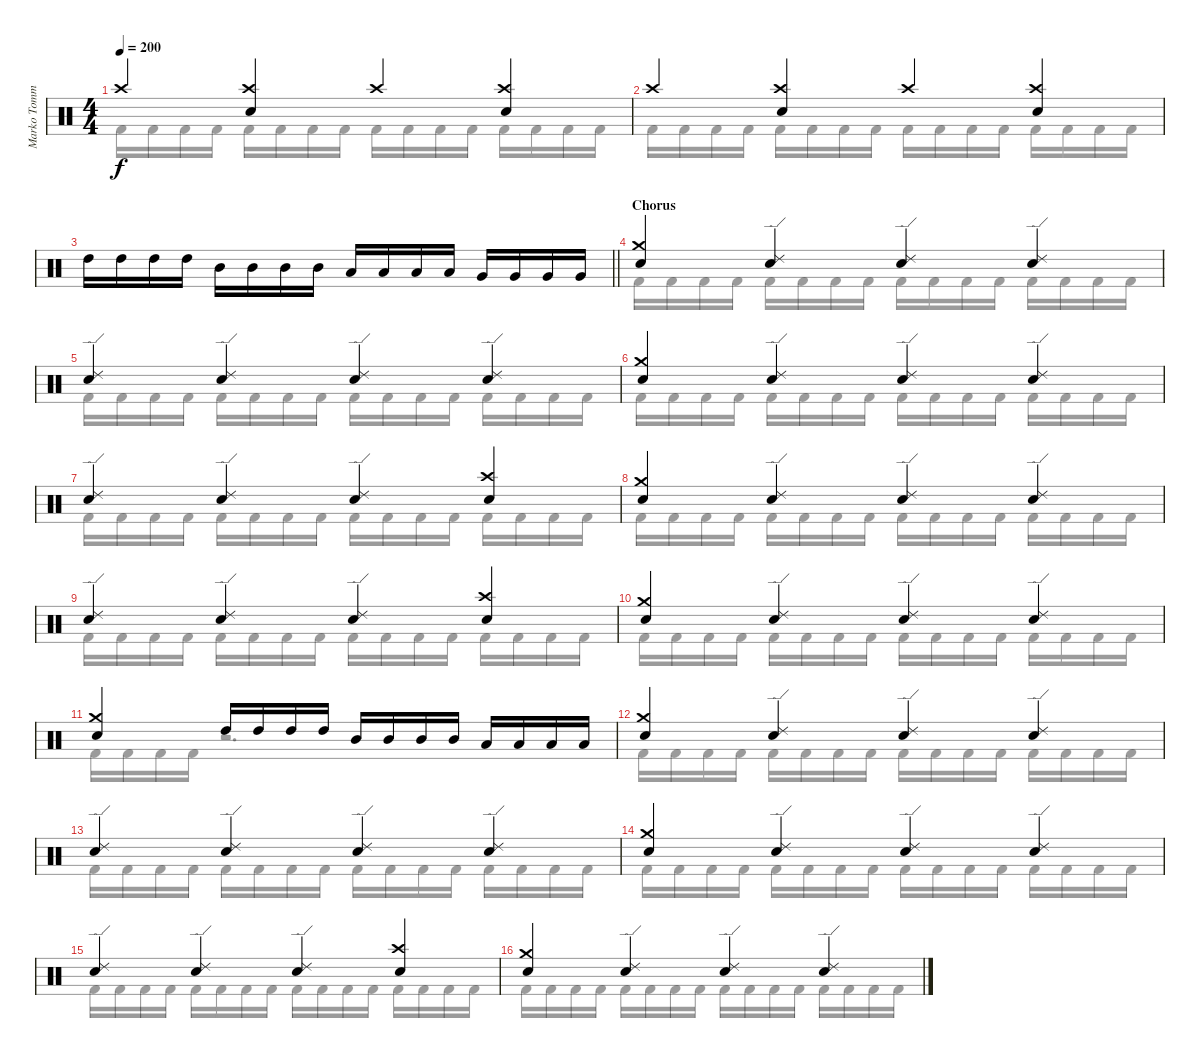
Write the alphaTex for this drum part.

\track ("Marko Tommila (drums)" "Marko Tomm") {instrument percussion}
\staff {score}
\articulation defaults
\voice
\ts (4 4)
\tempo 200
\clef neutral
\ks c "Crash high (hit)".4{dy f}
("Crash high (hit)" "Electric Snare (hit)").4 "Crash high (hit)".4 ("Crash high (hit)" "Electric Snare (hit)").4 |
"Crash high (hit)".4 ("Crash high (hit)" "Electric Snare (hit)").4 "Crash high (hit)".4 ("Crash high (hit)" "Electric Snare (hit)").4 |
\barLineRight lightlight "High Tom (hit)".16 "High Tom (hit)".16 "High Tom (hit)".16 "High Tom (hit)".16 "Mid Tom (hit)".16 "Mid Tom (hit)".16 "Mid Tom (hit)".16 "Mid Tom (hit)".16 "Low Tom (hit)".16 "Low Tom (hit)".16 "Low Tom (hit)".16 "Low Tom (hit)".16 "Very Low Tom (hit)".16 "Very Low Tom (hit)".16 "Very Low Tom (hit)".16 "Very Low Tom (hit)".16
|
\section ("" "Chorus")
\ks aminor
("Crash medium (hit)" "Electric Snare (hit)").4 ("Ride (edge) 2" "Electric Snare (hit)").4 ("Ride (edge) 2" "Electric Snare (hit)").4 ("Ride (edge) 2" "Electric Snare (hit)").4 |
("Ride (edge) 2" "Electric Snare (hit)").4 ("Ride (edge) 2" "Electric Snare (hit)").4 ("Ride (edge) 2" "Electric Snare (hit)").4 ("Ride (edge) 2" "Electric Snare (hit)").4 |
("Crash medium (hit)" "Electric Snare (hit)").4 ("Ride (edge) 2" "Electric Snare (hit)").4 ("Ride (edge) 2" "Electric Snare (hit)").4 ("Ride (edge) 2" "Electric Snare (hit)").4 |
("Ride (edge) 2" "Electric Snare (hit)").4 ("Ride (edge) 2" "Electric Snare (hit)").4 ("Ride (edge) 2" "Electric Snare (hit)").4 ("Crash high (hit)" "Electric Snare (hit)").4 |
("Crash medium (hit)" "Electric Snare (hit)").4 ("Ride (edge) 2" "Electric Snare (hit)").4 ("Ride (edge) 2" "Electric Snare (hit)").4 ("Ride (edge) 2" "Electric Snare (hit)").4 |
("Ride (edge) 2" "Electric Snare (hit)").4 ("Ride (edge) 2" "Electric Snare (hit)").4 ("Ride (edge) 2" "Electric Snare (hit)").4 ("Crash high (hit)" "Electric Snare (hit)").4 |
("Crash medium (hit)" "Electric Snare (hit)").4 ("Ride (edge) 2" "Electric Snare (hit)").4 ("Ride (edge) 2" "Electric Snare (hit)").4 ("Ride (edge) 2" "Electric Snare (hit)").4 |
("Crash medium (hit)" "Electric Snare (hit)").4 "High Tom (hit)".16 "High Tom (hit)".16 "High Tom (hit)".16 "High Tom (hit)".16 "Mid Tom (hit)".16 "Mid Tom (hit)".16 "Mid Tom (hit)".16 "Mid Tom (hit)".16 "Low Tom (hit)".16 "Low Tom (hit)".16 "Low Tom (hit)".16 "Low Tom (hit)".16 |
("Crash medium (hit)" "Electric Snare (hit)").4 ("Ride (edge) 2" "Electric Snare (hit)").4 ("Ride (edge) 2" "Electric Snare (hit)").4 ("Ride (edge) 2" "Electric Snare (hit)").4 |
("Ride (edge) 2" "Electric Snare (hit)").4 ("Ride (edge) 2" "Electric Snare (hit)").4 ("Ride (edge) 2" "Electric Snare (hit)").4 ("Ride (edge) 2" "Electric Snare (hit)").4 |
("Crash medium (hit)" "Electric Snare (hit)").4 ("Ride (edge) 2" "Electric Snare (hit)").4 ("Ride (edge) 2" "Electric Snare (hit)").4 ("Ride (edge) 2" "Electric Snare (hit)").4 |
("Ride (edge) 2" "Electric Snare (hit)").4 ("Ride (edge) 2" "Electric Snare (hit)").4 ("Ride (edge) 2" "Electric Snare (hit)").4 ("Crash high (hit)" "Electric Snare (hit)").4 |
("Crash medium (hit)" "Electric Snare (hit)").4 ("Ride (edge) 2" "Electric Snare (hit)").4 ("Ride (edge) 2" "Electric Snare (hit)").4 ("Ride (edge) 2" "Electric Snare (hit)").4
\voice
\clef neutral
\ottava regular
\simile none
\ks c "Kick (hit) 2".16{dy f} "Kick (hit) 2".16 "Kick (hit) 2".16 "Kick (hit) 2".16 "Kick (hit) 2".16 "Kick (hit) 2".16 "Kick (hit) 2".16 "Kick (hit) 2".16 "Kick (hit) 2".16 "Kick (hit) 2".16 "Kick (hit) 2".16 "Kick (hit) 2".16 "Kick (hit) 2".16 "Kick (hit) 2".16 "Kick (hit) 2".16 "Kick (hit) 2".16
|
"Kick (hit) 2".16 "Kick (hit) 2".16 "Kick (hit) 2".16 "Kick (hit) 2".16 "Kick (hit) 2".16 "Kick (hit) 2".16 "Kick (hit) 2".16 "Kick (hit) 2".16 "Kick (hit) 2".16 "Kick (hit) 2".16 "Kick (hit) 2".16 "Kick (hit) 2".16 "Kick (hit) 2".16 "Kick (hit) 2".16 "Kick (hit) 2".16 "Kick (hit) 2".16 |
\barLineRight lightlight
|
\ks aminor "Kick (hit) 2".16 "Kick (hit) 2".16 "Kick (hit) 2".16 "Kick (hit) 2".16 "Kick (hit) 2".16 "Kick (hit) 2".16 "Kick (hit) 2".16 "Kick (hit) 2".16 "Kick (hit) 2".16 "Kick (hit) 2".16 "Kick (hit) 2".16 "Kick (hit) 2".16 "Kick (hit) 2".16 "Kick (hit) 2".16 "Kick (hit) 2".16 "Kick (hit) 2".16
|
"Kick (hit) 2".16 "Kick (hit) 2".16 "Kick (hit) 2".16 "Kick (hit) 2".16 "Kick (hit) 2".16 "Kick (hit) 2".16 "Kick (hit) 2".16 "Kick (hit) 2".16 "Kick (hit) 2".16 "Kick (hit) 2".16 "Kick (hit) 2".16 "Kick (hit) 2".16 "Kick (hit) 2".16 "Kick (hit) 2".16 "Kick (hit) 2".16 "Kick (hit) 2".16 |
"Kick (hit) 2".16 "Kick (hit) 2".16 "Kick (hit) 2".16 "Kick (hit) 2".16 "Kick (hit) 2".16 "Kick (hit) 2".16 "Kick (hit) 2".16 "Kick (hit) 2".16 "Kick (hit) 2".16 "Kick (hit) 2".16 "Kick (hit) 2".16 "Kick (hit) 2".16 "Kick (hit) 2".16 "Kick (hit) 2".16 "Kick (hit) 2".16 "Kick (hit) 2".16 |
"Kick (hit) 2".16 "Kick (hit) 2".16 "Kick (hit) 2".16 "Kick (hit) 2".16 "Kick (hit) 2".16 "Kick (hit) 2".16 "Kick (hit) 2".16 "Kick (hit) 2".16 "Kick (hit) 2".16 "Kick (hit) 2".16 "Kick (hit) 2".16 "Kick (hit) 2".16 "Kick (hit) 2".16 "Kick (hit) 2".16 "Kick (hit) 2".16 "Kick (hit) 2".16 |
"Kick (hit) 2".16 "Kick (hit) 2".16 "Kick (hit) 2".16 "Kick (hit) 2".16 "Kick (hit) 2".16 "Kick (hit) 2".16 "Kick (hit) 2".16 "Kick (hit) 2".16 "Kick (hit) 2".16 "Kick (hit) 2".16 "Kick (hit) 2".16 "Kick (hit) 2".16 "Kick (hit) 2".16 "Kick (hit) 2".16 "Kick (hit) 2".16 "Kick (hit) 2".16 |
"Kick (hit) 2".16 "Kick (hit) 2".16 "Kick (hit) 2".16 "Kick (hit) 2".16 "Kick (hit) 2".16 "Kick (hit) 2".16 "Kick (hit) 2".16 "Kick (hit) 2".16 "Kick (hit) 2".16 "Kick (hit) 2".16 "Kick (hit) 2".16 "Kick (hit) 2".16 "Kick (hit) 2".16 "Kick (hit) 2".16 "Kick (hit) 2".16 "Kick (hit) 2".16 |
"Kick (hit) 2".16 "Kick (hit) 2".16 "Kick (hit) 2".16 "Kick (hit) 2".16 "Kick (hit) 2".16 "Kick (hit) 2".16 "Kick (hit) 2".16 "Kick (hit) 2".16 "Kick (hit) 2".16 "Kick (hit) 2".16 "Kick (hit) 2".16 "Kick (hit) 2".16 "Kick (hit) 2".16 "Kick (hit) 2".16 "Kick (hit) 2".16 "Kick (hit) 2".16 |
"Kick (hit) 2".16 "Kick (hit) 2".16 "Kick (hit) 2".16 "Kick (hit) 2".16 r.2{d} |
"Kick (hit) 2".16 "Kick (hit) 2".16 "Kick (hit) 2".16 "Kick (hit) 2".16 "Kick (hit) 2".16 "Kick (hit) 2".16 "Kick (hit) 2".16 "Kick (hit) 2".16 "Kick (hit) 2".16 "Kick (hit) 2".16 "Kick (hit) 2".16 "Kick (hit) 2".16 "Kick (hit) 2".16 "Kick (hit) 2".16 "Kick (hit) 2".16 "Kick (hit) 2".16 |
"Kick (hit) 2".16 "Kick (hit) 2".16 "Kick (hit) 2".16 "Kick (hit) 2".16 "Kick (hit) 2".16 "Kick (hit) 2".16 "Kick (hit) 2".16 "Kick (hit) 2".16 "Kick (hit) 2".16 "Kick (hit) 2".16 "Kick (hit) 2".16 "Kick (hit) 2".16 "Kick (hit) 2".16 "Kick (hit) 2".16 "Kick (hit) 2".16 "Kick (hit) 2".16 |
"Kick (hit) 2".16 "Kick (hit) 2".16 "Kick (hit) 2".16 "Kick (hit) 2".16 "Kick (hit) 2".16 "Kick (hit) 2".16 "Kick (hit) 2".16 "Kick (hit) 2".16 "Kick (hit) 2".16 "Kick (hit) 2".16 "Kick (hit) 2".16 "Kick (hit) 2".16 "Kick (hit) 2".16 "Kick (hit) 2".16 "Kick (hit) 2".16 "Kick (hit) 2".16 |
"Kick (hit) 2".16 "Kick (hit) 2".16 "Kick (hit) 2".16 "Kick (hit) 2".16 "Kick (hit) 2".16 "Kick (hit) 2".16 "Kick (hit) 2".16 "Kick (hit) 2".16 "Kick (hit) 2".16 "Kick (hit) 2".16 "Kick (hit) 2".16 "Kick (hit) 2".16 "Kick (hit) 2".16 "Kick (hit) 2".16 "Kick (hit) 2".16 "Kick (hit) 2".16 |
"Kick (hit) 2".16 "Kick (hit) 2".16 "Kick (hit) 2".16 "Kick (hit) 2".16 "Kick (hit) 2".16 "Kick (hit) 2".16 "Kick (hit) 2".16 "Kick (hit) 2".16 "Kick (hit) 2".16 "Kick (hit) 2".16 "Kick (hit) 2".16 "Kick (hit) 2".16 "Kick (hit) 2".16 "Kick (hit) 2".16 "Kick (hit) 2".16 "Kick (hit) 2".16
